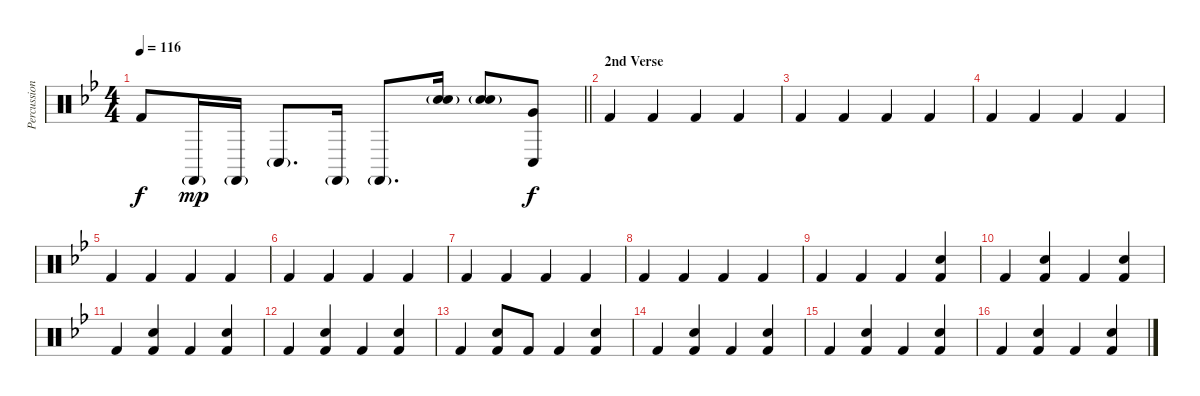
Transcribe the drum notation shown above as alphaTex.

\track ("Percussion" "Percussion") {instrument percussion}
\staff {score}
\articulation defaults
\ts (4 4)
\tempo 116
\clef neutral
\barLineRight lightlight
\ks gminor "Kick (hit) 2".8{dy f} "Castanets (hit)"{g}.16{dy mp} "Castanets (hit)"{g}.16 "Conga low (hit)"{g}.8{d} "Castanets (hit)"{g}.16 "Castanets (hit)"{g}.8{d}
("Snare (hit) 2" "Hand Clap (hit)"{g}).16 ("Snare (hit) 2" "Hand Clap (hit)"{g}).8 ("Conga low (hit)" "Very Low Tom (hit)").8{dy f} |
\section ("" "2nd Verse")
"Kick (hit) 2".4 "Kick (hit) 2".4 "Kick (hit) 2".4 "Kick (hit) 2".4 |
"Kick (hit) 2".4 "Kick (hit) 2".4 "Kick (hit) 2".4 "Kick (hit) 2".4 |
"Kick (hit) 2".4 "Kick (hit) 2".4 "Kick (hit) 2".4 "Kick (hit) 2".4 |
"Kick (hit) 2".4 "Kick (hit) 2".4 "Kick (hit) 2".4 "Kick (hit) 2".4 |
"Kick (hit) 2".4 "Kick (hit) 2".4 "Kick (hit) 2".4 "Kick (hit) 2".4 |
"Kick (hit) 2".4 "Kick (hit) 2".4 "Kick (hit) 2".4 "Kick (hit) 2".4 |
"Kick (hit) 2".4 "Kick (hit) 2".4 "Kick (hit) 2".4 "Kick (hit) 2".4 |
"Kick (hit) 2".4 "Kick (hit) 2".4 "Kick (hit) 2".4 ("Snare (hit) 2" "Kick (hit) 2").4 |
"Kick (hit) 2".4 ("Snare (hit) 2" "Kick (hit) 2").4 "Kick (hit) 2".4 ("Snare (hit) 2" "Kick (hit) 2").4 |
"Kick (hit) 2".4 ("Snare (hit) 2" "Kick (hit) 2").4 "Kick (hit) 2".4 ("Snare (hit) 2" "Kick (hit) 2").4 |
"Kick (hit) 2".4 ("Snare (hit) 2" "Kick (hit) 2").4 "Kick (hit) 2".4 ("Snare (hit) 2" "Kick (hit) 2").4 |
"Kick (hit) 2".4 ("Snare (hit) 2" "Kick (hit) 2").8 "Kick (hit) 2".8 "Kick (hit) 2".4 ("Snare (hit) 2" "Kick (hit) 2").4 |
"Kick (hit) 2".4 ("Snare (hit) 2" "Kick (hit) 2").4 "Kick (hit) 2".4 ("Snare (hit) 2" "Kick (hit) 2").4 |
"Kick (hit) 2".4 ("Snare (hit) 2" "Kick (hit) 2").4 "Kick (hit) 2".4 ("Snare (hit) 2" "Kick (hit) 2").4 |
"Kick (hit) 2".4 ("Snare (hit) 2" "Kick (hit) 2").4 "Kick (hit) 2".4 ("Snare (hit) 2" "Kick (hit) 2").4
